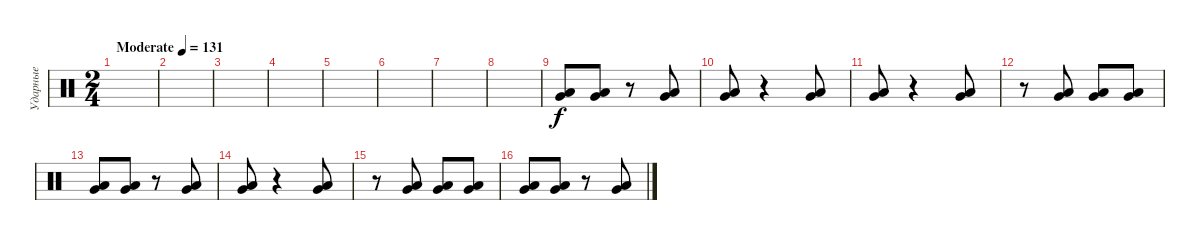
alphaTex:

\track ("Ударные" "Ударные") {instrument percussion}
\staff {score}
\articulation defaults
\ts (2 4)
\tempo (131 "Moderate")
\clef neutral
\ks c
|
|
|
|
|
|
|
|
("Low Floor Tom (hit)" "Very Low Tom (hit)").8 ("Low Floor Tom (hit)" "Very Low Tom (hit)").8 r.8 ("Low Floor Tom (hit)" "Very Low Tom (hit)").8 |
("Low Floor Tom (hit)" "Very Low Tom (hit)").8 r.4 ("Low Floor Tom (hit)" "Very Low Tom (hit)").8 |
("Low Floor Tom (hit)" "Very Low Tom (hit)").8 r.4 ("Low Floor Tom (hit)" "Very Low Tom (hit)").8 |
r.8 ("Low Floor Tom (hit)" "Very Low Tom (hit)").8 ("Low Floor Tom (hit)" "Very Low Tom (hit)").8 ("Low Floor Tom (hit)" "Very Low Tom (hit)").8 |
("Low Floor Tom (hit)" "Very Low Tom (hit)").8 ("Low Floor Tom (hit)" "Very Low Tom (hit)").8 r.8 ("Low Floor Tom (hit)" "Very Low Tom (hit)").8 |
("Low Floor Tom (hit)" "Very Low Tom (hit)").8 r.4 ("Low Floor Tom (hit)" "Very Low Tom (hit)").8 |
r.8 ("Low Floor Tom (hit)" "Very Low Tom (hit)").8 ("Low Floor Tom (hit)" "Very Low Tom (hit)").8 ("Low Floor Tom (hit)" "Very Low Tom (hit)").8 |
("Low Floor Tom (hit)" "Very Low Tom (hit)").8 ("Low Floor Tom (hit)" "Very Low Tom (hit)").8 r.8 ("Low Floor Tom (hit)" "Very Low Tom (hit)").8
